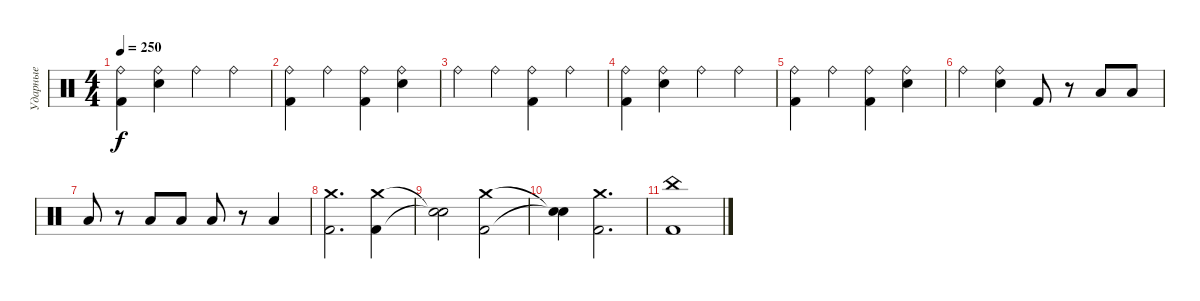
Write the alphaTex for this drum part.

\track ("Ударные" "Ударные") {instrument percussion}
\staff {score}
\articulation defaults
\ts (4 4)
\tempo 250
\clef neutral
\ks c
("Ride (bell)" "Kick (hit) 2").4{dy f} ("Snare (hit) 2" "Ride (bell)").4 "Ride (bell)".4 "Ride (bell)".4 |
("Ride (bell)" "Kick (hit) 2").4 "Ride (bell)".4 ("Ride (bell)" "Kick (hit) 2").4 ("Snare (hit) 2" "Ride (bell)").4 |
"Ride (bell)".4 "Ride (bell)".4 ("Ride (bell)" "Kick (hit) 2").4 "Ride (bell)".4 |
("Ride (bell)" "Kick (hit) 2").4 ("Snare (hit) 2" "Ride (bell)").4 "Ride (bell)".4 "Ride (bell)".4 |
("Ride (bell)" "Kick (hit) 2").4 "Ride (bell)".4 ("Ride (bell)" "Kick (hit) 2").4 ("Snare (hit) 2" "Ride (bell)").4 |
"Ride (bell)".4 ("Snare (hit) 2" "Ride (bell)").4 "Kick (hit) 2".8 r.8 "Low Tom (hit)".8 "Low Tom (hit)".8 |
"Low Tom (hit)".8 r.8 "Low Tom (hit)".8 "Low Tom (hit)".8 "Low Tom (hit)".8 r.8 "Low Tom (hit)".4 |
("Crash medium (hit)" "Kick (hit) 2").2{d} ("Crash medium (hit)" "Kick (hit) 2").4 |
("Snare (hit)"{t} "Snare (hit)"{t}).2 ("Crash medium (hit)" "Kick (hit) 2").2 |
("Snare (hit)"{t} "Snare (hit)"{t}).4 ("Crash medium (hit)" "Kick (hit) 2").2{d} |
("China (hit)" "Kick (hit) 2").1
